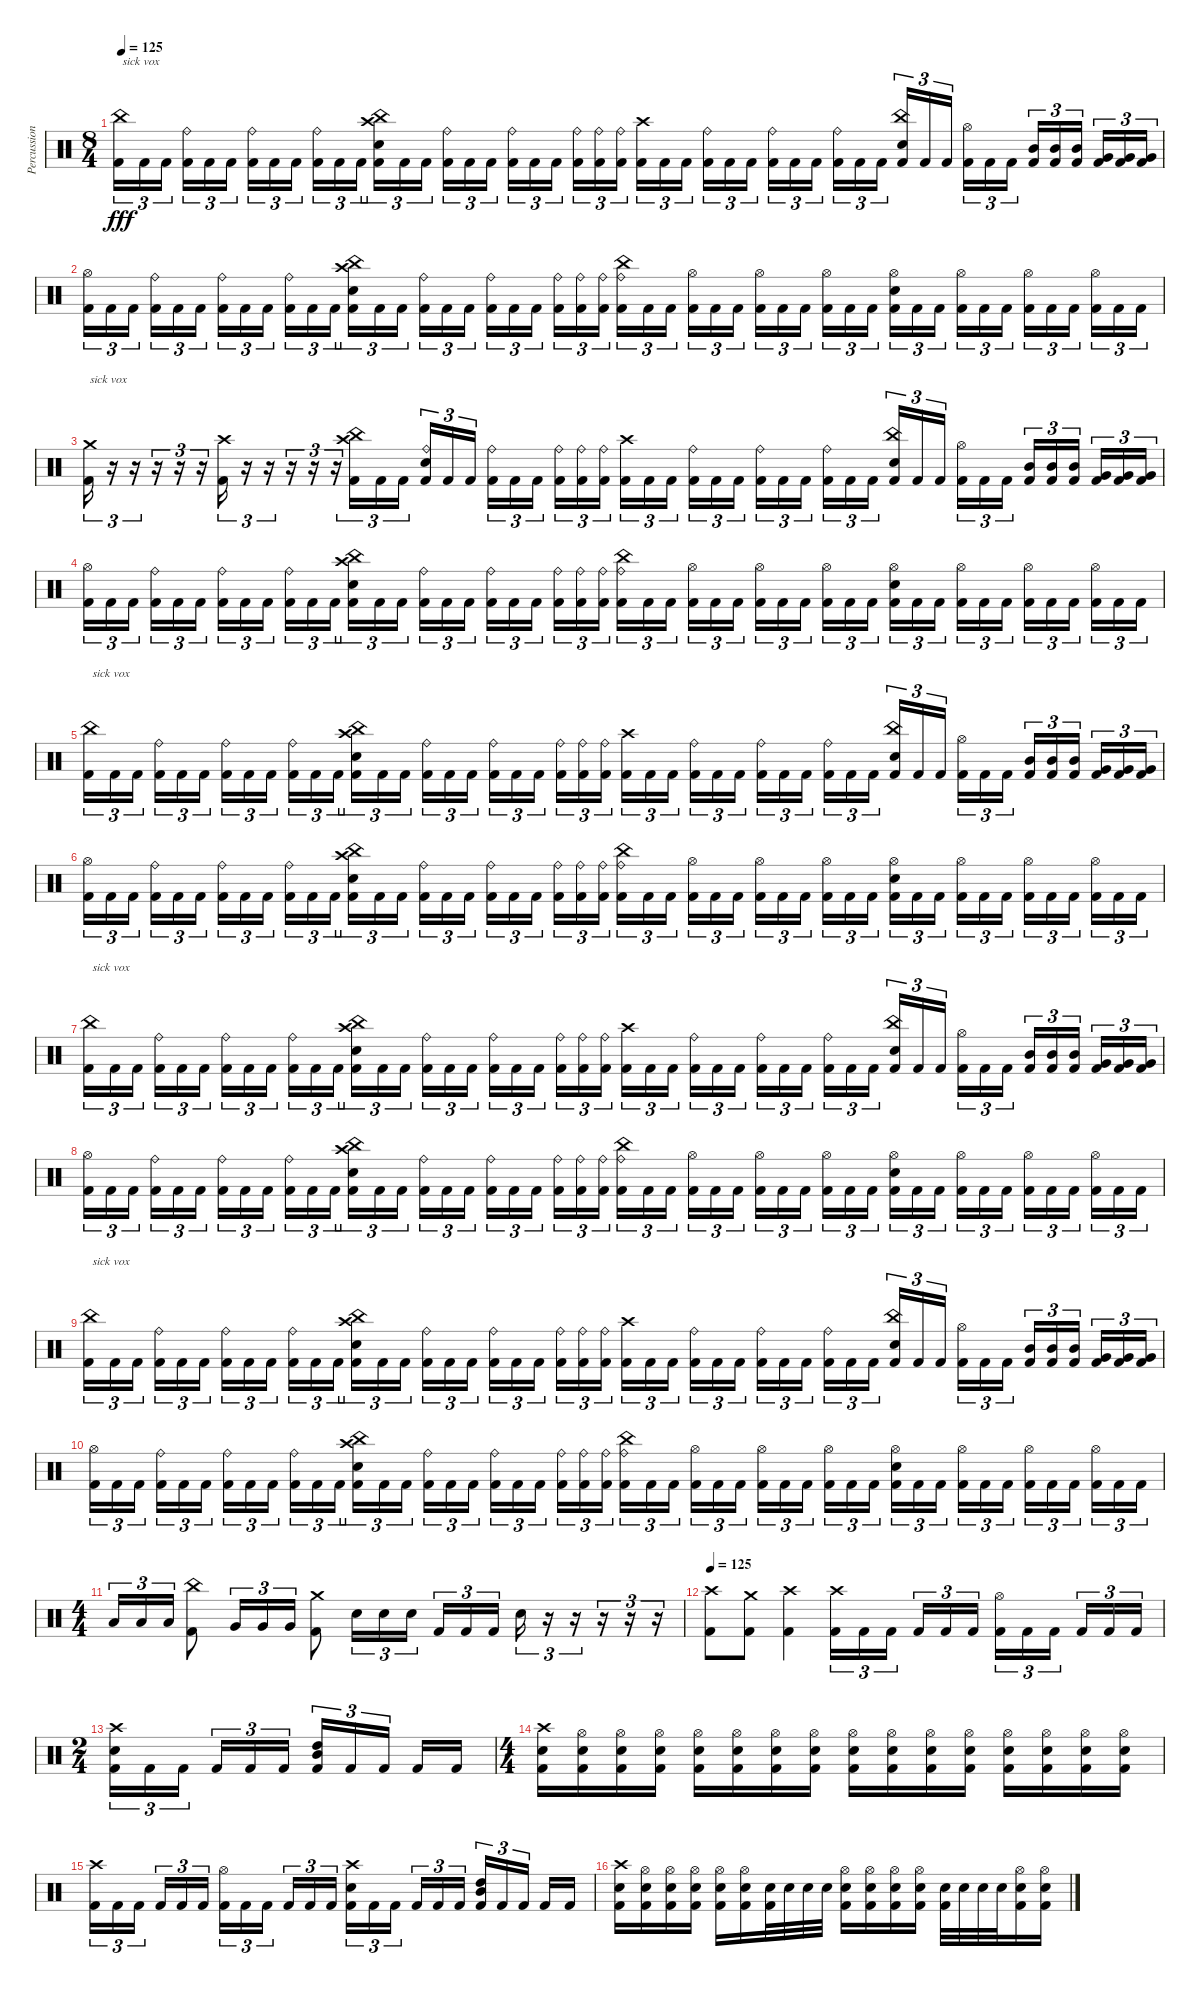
\track ("Percussion" "Percussion") {instrument percussion}
\staff {score}
\articulation defaults
\ts (8 4)
\tempo 125
\clef neutral
\ks c
("Kick (hit) 2" "China (hit)").16{tu (3 2) txt "sick vox" dy fff} "Kick (hit) 2".16{tu (3 2)} "Kick (hit) 2".16{tu (3 2) beam splitsecondary} ("Kick (hit) 2" "Ride (bell)").16{tu (3 2)} "Kick (hit) 2".16{tu (3 2)} "Kick (hit) 2".16{tu (3 2)} ("Kick (hit) 2" "Ride (bell)").16{tu (3 2)} "Kick (hit) 2".16{tu (3 2)} "Kick (hit) 2".16{tu (3 2) beam splitsecondary} ("Kick (hit) 2" "Ride (bell)").16{tu (3 2)} "Kick (hit) 2".16{tu (3 2)} "Kick (hit) 2".16{tu (3 2)} ("Kick (hit) 2" "Electric Snare (hit)" "China (hit)" "Crash high (hit)").16{tu (3 2)} "Kick (hit) 2".16{tu (3 2)} "Kick (hit) 2".16{tu (3 2) beam splitsecondary} ("Kick (hit) 2" "Ride (bell)").16{tu (3 2)} "Kick (hit) 2".16{tu (3 2)} "Kick (hit) 2".16{tu (3 2)} ("Kick (hit) 2" "Ride (bell)").16{tu (3 2)} "Kick (hit) 2".16{tu (3 2)} "Kick (hit) 2".16{tu (3 2) beam splitsecondary} ("Kick (hit) 2" "Ride (bell)").16{tu (3 2)} ("Kick (hit) 2" "Ride (bell)").16{tu (3 2)} ("Kick (hit) 2" "Ride (bell)").16{tu (3 2)} ("Kick (hit) 2" "Crash high (hit)").16{tu (3 2)} "Kick (hit) 2".16{tu (3 2)} "Kick (hit) 2".16{tu (3 2) beam splitsecondary} ("Kick (hit) 2" "Ride (bell)").16{tu (3 2)} "Kick (hit) 2".16{tu (3 2)} "Kick (hit) 2".16{tu (3 2)} ("Kick (hit) 2" "Ride (bell)").16{tu (3 2)} "Kick (hit) 2".16{tu (3 2)} "Kick (hit) 2".16{tu (3 2) beam splitsecondary} ("Kick (hit) 2" "Ride (bell)").16{tu (3 2)} "Kick (hit) 2".16{tu (3 2)} "Kick (hit) 2".16{tu (3 2)} ("Kick (hit) 2" "China (hit)" "Electric Snare (hit)").16{tu (3 2)} "Kick (hit) 2".16{tu (3 2)} "Kick (hit) 2".16{tu (3 2) beam splitsecondary} ("Kick (hit) 2" "Hi-Hat (open)").16{tu (3 2)} "Kick (hit) 2".16{tu (3 2)} "Kick (hit) 2".16{tu (3 2)} ("Kick (hit) 2" "Mid Tom (hit)").16{tu (3 2)} ("Kick (hit) 2" "Mid Tom (hit)").16{tu (3 2)} ("Kick (hit) 2" "Mid Tom (hit)").16{tu (3 2) beam splitsecondary} ("Kick (hit) 2" "Very Low Tom (hit)").16{tu (3 2)} ("Kick (hit) 2" "Very Low Tom (hit)").16{tu (3 2)} ("Kick (hit) 2" "Very Low Tom (hit)").16{tu (3 2)} |
("Kick (hit) 2" "Hi-Hat (open)").16{tu (3 2)} "Kick (hit) 2".16{tu (3 2)} "Kick (hit) 2".16{tu (3 2) beam splitsecondary} ("Kick (hit) 2" "Ride (bell)").16{tu (3 2)} "Kick (hit) 2".16{tu (3 2)} "Kick (hit) 2".16{tu (3 2)} ("Kick (hit) 2" "Ride (bell)").16{tu (3 2)} "Kick (hit) 2".16{tu (3 2)} "Kick (hit) 2".16{tu (3 2) beam splitsecondary} ("Kick (hit) 2" "Ride (bell)").16{tu (3 2)} "Kick (hit) 2".16{tu (3 2)} "Kick (hit) 2".16{tu (3 2)} ("Kick (hit) 2" "Electric Snare (hit)" "China (hit)" "Crash high (hit)").16{tu (3 2)} "Kick (hit) 2".16{tu (3 2)} "Kick (hit) 2".16{tu (3 2) beam splitsecondary} ("Kick (hit) 2" "Ride (bell)").16{tu (3 2)} "Kick (hit) 2".16{tu (3 2)} "Kick (hit) 2".16{tu (3 2)} ("Kick (hit) 2" "Ride (bell)").16{tu (3 2)} "Kick (hit) 2".16{tu (3 2)} "Kick (hit) 2".16{tu (3 2) beam splitsecondary} ("Kick (hit) 2" "Ride (bell)").16{tu (3 2)} ("Kick (hit) 2" "Ride (bell)").16{tu (3 2)} ("Kick (hit) 2" "Ride (bell)").16{tu (3 2)} ("Kick (hit) 2" "Ride (bell)" "China (hit)").16{tu (3 2)} "Kick (hit) 2".16{tu (3 2)} "Kick (hit) 2".16{tu (3 2) beam splitsecondary} ("Kick (hit) 2" "Hi-Hat (open)").16{tu (3 2)} "Kick (hit) 2".16{tu (3 2)} "Kick (hit) 2".16{tu (3 2)} ("Kick (hit) 2" "Hi-Hat (open)").16{tu (3 2)} "Kick (hit) 2".16{tu (3 2)} "Kick (hit) 2".16{tu (3 2) beam splitsecondary} ("Kick (hit) 2" "Hi-Hat (open)").16{tu (3 2)} "Kick (hit) 2".16{tu (3 2)} "Kick (hit) 2".16{tu (3 2)} ("Kick (hit) 2" "Hi-Hat (open)" "Electric Snare (hit)").16{tu (3 2)} "Kick (hit) 2".16{tu (3 2)} "Kick (hit) 2".16{tu (3 2) beam splitsecondary} ("Kick (hit) 2" "Hi-Hat (open)").16{tu (3 2)} "Kick (hit) 2".16{tu (3 2)} "Kick (hit) 2".16{tu (3 2)} ("Kick (hit) 2" "Hi-Hat (open)").16{tu (3 2)} "Kick (hit) 2".16{tu (3 2)} "Kick (hit) 2".16{tu (3 2) beam splitsecondary} ("Kick (hit) 2" "Hi-Hat (open)").16{tu (3 2)} "Kick (hit) 2".16{tu (3 2)} "Kick (hit) 2".16{tu (3 2)} |
("Kick (hit) 2" "Crash medium (hit)").16{tu (3 2) txt "sick vox"} r.16{tu (3 2)} r.16{tu (3 2)} r.16{tu (3 2)} r.16{tu (3 2)} r.16{tu (3 2)} ("Kick (hit) 2" "Crash high (hit)").16{tu (3 2)} r.16{tu (3 2)} r.16{tu (3 2)} r.16{tu (3 2)} r.16{tu (3 2)} r.16{tu (3 2)} ("Kick (hit) 2" "China (hit)" "Crash high (hit)").16{tu (3 2)} "Kick (hit) 2".16{tu (3 2)} "Kick (hit) 2".16{tu (3 2) beam splitsecondary} ("Kick (hit) 2" "Ride (bell)" "Electric Snare (hit)").16{tu (3 2)} "Kick (hit) 2".16{tu (3 2)} "Kick (hit) 2".16{tu (3 2)} ("Kick (hit) 2" "Ride (bell)").16{tu (3 2)} "Kick (hit) 2".16{tu (3 2)} "Kick (hit) 2".16{tu (3 2) beam splitsecondary} ("Kick (hit) 2" "Ride (bell)").16{tu (3 2)} ("Kick (hit) 2" "Ride (bell)").16{tu (3 2)} ("Kick (hit) 2" "Ride (bell)").16{tu (3 2)} ("Kick (hit) 2" "Crash high (hit)").16{tu (3 2)} "Kick (hit) 2".16{tu (3 2)} "Kick (hit) 2".16{tu (3 2) beam splitsecondary} ("Kick (hit) 2" "Ride (bell)").16{tu (3 2)} "Kick (hit) 2".16{tu (3 2)} "Kick (hit) 2".16{tu (3 2)} ("Kick (hit) 2" "Ride (bell)").16{tu (3 2)} "Kick (hit) 2".16{tu (3 2)} "Kick (hit) 2".16{tu (3 2) beam splitsecondary} ("Kick (hit) 2" "Ride (bell)").16{tu (3 2)} "Kick (hit) 2".16{tu (3 2)} "Kick (hit) 2".16{tu (3 2)} ("Kick (hit) 2" "China (hit)" "Electric Snare (hit)").16{tu (3 2)} "Kick (hit) 2".16{tu (3 2)} "Kick (hit) 2".16{tu (3 2) beam splitsecondary} ("Kick (hit) 2" "Hi-Hat (open)").16{tu (3 2)} "Kick (hit) 2".16{tu (3 2)} "Kick (hit) 2".16{tu (3 2)} ("Kick (hit) 2" "Mid Tom (hit)").16{tu (3 2)} ("Kick (hit) 2" "Mid Tom (hit)").16{tu (3 2)} ("Kick (hit) 2" "Mid Tom (hit)").16{tu (3 2) beam splitsecondary} ("Kick (hit) 2" "Very Low Tom (hit)").16{tu (3 2)} ("Kick (hit) 2" "Very Low Tom (hit)").16{tu (3 2)} ("Kick (hit) 2" "Very Low Tom (hit)").16{tu (3 2)} |
("Kick (hit) 2" "Hi-Hat (open)").16{tu (3 2)} "Kick (hit) 2".16{tu (3 2)} "Kick (hit) 2".16{tu (3 2) beam splitsecondary} ("Kick (hit) 2" "Ride (bell)").16{tu (3 2)} "Kick (hit) 2".16{tu (3 2)} "Kick (hit) 2".16{tu (3 2)} ("Kick (hit) 2" "Ride (bell)").16{tu (3 2)} "Kick (hit) 2".16{tu (3 2)} "Kick (hit) 2".16{tu (3 2) beam splitsecondary} ("Kick (hit) 2" "Ride (bell)").16{tu (3 2)} "Kick (hit) 2".16{tu (3 2)} "Kick (hit) 2".16{tu (3 2)} ("Kick (hit) 2" "Electric Snare (hit)" "China (hit)" "Crash high (hit)").16{tu (3 2)} "Kick (hit) 2".16{tu (3 2)} "Kick (hit) 2".16{tu (3 2) beam splitsecondary} ("Kick (hit) 2" "Ride (bell)").16{tu (3 2)} "Kick (hit) 2".16{tu (3 2)} "Kick (hit) 2".16{tu (3 2)} ("Kick (hit) 2" "Ride (bell)").16{tu (3 2)} "Kick (hit) 2".16{tu (3 2)} "Kick (hit) 2".16{tu (3 2) beam splitsecondary} ("Kick (hit) 2" "Ride (bell)").16{tu (3 2)} ("Kick (hit) 2" "Ride (bell)").16{tu (3 2)} ("Kick (hit) 2" "Ride (bell)").16{tu (3 2)} ("Kick (hit) 2" "Ride (bell)" "China (hit)").16{tu (3 2)} "Kick (hit) 2".16{tu (3 2)} "Kick (hit) 2".16{tu (3 2) beam splitsecondary} ("Kick (hit) 2" "Hi-Hat (open)").16{tu (3 2)} "Kick (hit) 2".16{tu (3 2)} "Kick (hit) 2".16{tu (3 2)} ("Kick (hit) 2" "Hi-Hat (open)").16{tu (3 2)} "Kick (hit) 2".16{tu (3 2)} "Kick (hit) 2".16{tu (3 2) beam splitsecondary} ("Kick (hit) 2" "Hi-Hat (open)").16{tu (3 2)} "Kick (hit) 2".16{tu (3 2)} "Kick (hit) 2".16{tu (3 2)} ("Kick (hit) 2" "Hi-Hat (open)" "Electric Snare (hit)").16{tu (3 2)} "Kick (hit) 2".16{tu (3 2)} "Kick (hit) 2".16{tu (3 2) beam splitsecondary} ("Kick (hit) 2" "Hi-Hat (open)").16{tu (3 2)} "Kick (hit) 2".16{tu (3 2)} "Kick (hit) 2".16{tu (3 2)} ("Kick (hit) 2" "Hi-Hat (open)").16{tu (3 2)} "Kick (hit) 2".16{tu (3 2)} "Kick (hit) 2".16{tu (3 2) beam splitsecondary} ("Kick (hit) 2" "Hi-Hat (open)").16{tu (3 2)} "Kick (hit) 2".16{tu (3 2)} "Kick (hit) 2".16{tu (3 2)} |
("Kick (hit) 2" "China (hit)").16{tu (3 2) txt "sick vox"} "Kick (hit) 2".16{tu (3 2)} "Kick (hit) 2".16{tu (3 2) beam splitsecondary} ("Kick (hit) 2" "Ride (bell)").16{tu (3 2)} "Kick (hit) 2".16{tu (3 2)} "Kick (hit) 2".16{tu (3 2)} ("Kick (hit) 2" "Ride (bell)").16{tu (3 2)} "Kick (hit) 2".16{tu (3 2)} "Kick (hit) 2".16{tu (3 2) beam splitsecondary} ("Kick (hit) 2" "Ride (bell)").16{tu (3 2)} "Kick (hit) 2".16{tu (3 2)} "Kick (hit) 2".16{tu (3 2)} ("Kick (hit) 2" "Electric Snare (hit)" "China (hit)" "Crash high (hit)").16{tu (3 2)} "Kick (hit) 2".16{tu (3 2)} "Kick (hit) 2".16{tu (3 2) beam splitsecondary} ("Kick (hit) 2" "Ride (bell)").16{tu (3 2)} "Kick (hit) 2".16{tu (3 2)} "Kick (hit) 2".16{tu (3 2)} ("Kick (hit) 2" "Ride (bell)").16{tu (3 2)} "Kick (hit) 2".16{tu (3 2)} "Kick (hit) 2".16{tu (3 2) beam splitsecondary} ("Kick (hit) 2" "Ride (bell)").16{tu (3 2)} ("Kick (hit) 2" "Ride (bell)").16{tu (3 2)} ("Kick (hit) 2" "Ride (bell)").16{tu (3 2)} ("Kick (hit) 2" "Crash high (hit)").16{tu (3 2)} "Kick (hit) 2".16{tu (3 2)} "Kick (hit) 2".16{tu (3 2) beam splitsecondary} ("Kick (hit) 2" "Ride (bell)").16{tu (3 2)} "Kick (hit) 2".16{tu (3 2)} "Kick (hit) 2".16{tu (3 2)} ("Kick (hit) 2" "Ride (bell)").16{tu (3 2)} "Kick (hit) 2".16{tu (3 2)} "Kick (hit) 2".16{tu (3 2) beam splitsecondary} ("Kick (hit) 2" "Ride (bell)").16{tu (3 2)} "Kick (hit) 2".16{tu (3 2)} "Kick (hit) 2".16{tu (3 2)} ("Kick (hit) 2" "China (hit)" "Electric Snare (hit)").16{tu (3 2)} "Kick (hit) 2".16{tu (3 2)} "Kick (hit) 2".16{tu (3 2) beam splitsecondary} ("Kick (hit) 2" "Hi-Hat (open)").16{tu (3 2)} "Kick (hit) 2".16{tu (3 2)} "Kick (hit) 2".16{tu (3 2)} ("Kick (hit) 2" "Mid Tom (hit)").16{tu (3 2)} ("Kick (hit) 2" "Mid Tom (hit)").16{tu (3 2)} ("Kick (hit) 2" "Mid Tom (hit)").16{tu (3 2) beam splitsecondary} ("Kick (hit) 2" "Very Low Tom (hit)").16{tu (3 2)} ("Kick (hit) 2" "Very Low Tom (hit)").16{tu (3 2)} ("Kick (hit) 2" "Very Low Tom (hit)").16{tu (3 2)} |
("Kick (hit) 2" "Hi-Hat (open)").16{tu (3 2)} "Kick (hit) 2".16{tu (3 2)} "Kick (hit) 2".16{tu (3 2) beam splitsecondary} ("Kick (hit) 2" "Ride (bell)").16{tu (3 2)} "Kick (hit) 2".16{tu (3 2)} "Kick (hit) 2".16{tu (3 2)} ("Kick (hit) 2" "Ride (bell)").16{tu (3 2)} "Kick (hit) 2".16{tu (3 2)} "Kick (hit) 2".16{tu (3 2) beam splitsecondary} ("Kick (hit) 2" "Ride (bell)").16{tu (3 2)} "Kick (hit) 2".16{tu (3 2)} "Kick (hit) 2".16{tu (3 2)} ("Kick (hit) 2" "Electric Snare (hit)" "China (hit)" "Crash high (hit)").16{tu (3 2)} "Kick (hit) 2".16{tu (3 2)} "Kick (hit) 2".16{tu (3 2) beam splitsecondary} ("Kick (hit) 2" "Ride (bell)").16{tu (3 2)} "Kick (hit) 2".16{tu (3 2)} "Kick (hit) 2".16{tu (3 2)} ("Kick (hit) 2" "Ride (bell)").16{tu (3 2)} "Kick (hit) 2".16{tu (3 2)} "Kick (hit) 2".16{tu (3 2) beam splitsecondary} ("Kick (hit) 2" "Ride (bell)").16{tu (3 2)} ("Kick (hit) 2" "Ride (bell)").16{tu (3 2)} ("Kick (hit) 2" "Ride (bell)").16{tu (3 2)} ("Kick (hit) 2" "Ride (bell)" "China (hit)").16{tu (3 2)} "Kick (hit) 2".16{tu (3 2)} "Kick (hit) 2".16{tu (3 2) beam splitsecondary} ("Kick (hit) 2" "Hi-Hat (open)").16{tu (3 2)} "Kick (hit) 2".16{tu (3 2)} "Kick (hit) 2".16{tu (3 2)} ("Kick (hit) 2" "Hi-Hat (open)").16{tu (3 2)} "Kick (hit) 2".16{tu (3 2)} "Kick (hit) 2".16{tu (3 2) beam splitsecondary} ("Kick (hit) 2" "Hi-Hat (open)").16{tu (3 2)} "Kick (hit) 2".16{tu (3 2)} "Kick (hit) 2".16{tu (3 2)} ("Kick (hit) 2" "Hi-Hat (open)" "Electric Snare (hit)").16{tu (3 2)} "Kick (hit) 2".16{tu (3 2)} "Kick (hit) 2".16{tu (3 2) beam splitsecondary} ("Kick (hit) 2" "Hi-Hat (open)").16{tu (3 2)} "Kick (hit) 2".16{tu (3 2)} "Kick (hit) 2".16{tu (3 2)} ("Kick (hit) 2" "Hi-Hat (open)").16{tu (3 2)} "Kick (hit) 2".16{tu (3 2)} "Kick (hit) 2".16{tu (3 2) beam splitsecondary} ("Kick (hit) 2" "Hi-Hat (open)").16{tu (3 2)} "Kick (hit) 2".16{tu (3 2)} "Kick (hit) 2".16{tu (3 2)} |
("Kick (hit) 2" "China (hit)").16{tu (3 2) txt "sick vox"} "Kick (hit) 2".16{tu (3 2)} "Kick (hit) 2".16{tu (3 2) beam splitsecondary} ("Kick (hit) 2" "Ride (bell)").16{tu (3 2)} "Kick (hit) 2".16{tu (3 2)} "Kick (hit) 2".16{tu (3 2)} ("Kick (hit) 2" "Ride (bell)").16{tu (3 2)} "Kick (hit) 2".16{tu (3 2)} "Kick (hit) 2".16{tu (3 2) beam splitsecondary} ("Kick (hit) 2" "Ride (bell)").16{tu (3 2)} "Kick (hit) 2".16{tu (3 2)} "Kick (hit) 2".16{tu (3 2)} ("Kick (hit) 2" "Electric Snare (hit)" "China (hit)" "Crash high (hit)").16{tu (3 2)} "Kick (hit) 2".16{tu (3 2)} "Kick (hit) 2".16{tu (3 2) beam splitsecondary} ("Kick (hit) 2" "Ride (bell)").16{tu (3 2)} "Kick (hit) 2".16{tu (3 2)} "Kick (hit) 2".16{tu (3 2)} ("Kick (hit) 2" "Ride (bell)").16{tu (3 2)} "Kick (hit) 2".16{tu (3 2)} "Kick (hit) 2".16{tu (3 2) beam splitsecondary} ("Kick (hit) 2" "Ride (bell)").16{tu (3 2)} ("Kick (hit) 2" "Ride (bell)").16{tu (3 2)} ("Kick (hit) 2" "Ride (bell)").16{tu (3 2)} ("Kick (hit) 2" "Crash high (hit)").16{tu (3 2)} "Kick (hit) 2".16{tu (3 2)} "Kick (hit) 2".16{tu (3 2) beam splitsecondary} ("Kick (hit) 2" "Ride (bell)").16{tu (3 2)} "Kick (hit) 2".16{tu (3 2)} "Kick (hit) 2".16{tu (3 2)} ("Kick (hit) 2" "Ride (bell)").16{tu (3 2)} "Kick (hit) 2".16{tu (3 2)} "Kick (hit) 2".16{tu (3 2) beam splitsecondary} ("Kick (hit) 2" "Ride (bell)").16{tu (3 2)} "Kick (hit) 2".16{tu (3 2)} "Kick (hit) 2".16{tu (3 2)} ("Kick (hit) 2" "China (hit)" "Electric Snare (hit)").16{tu (3 2)} "Kick (hit) 2".16{tu (3 2)} "Kick (hit) 2".16{tu (3 2) beam splitsecondary} ("Kick (hit) 2" "Hi-Hat (open)").16{tu (3 2)} "Kick (hit) 2".16{tu (3 2)} "Kick (hit) 2".16{tu (3 2)} ("Kick (hit) 2" "Mid Tom (hit)").16{tu (3 2)} ("Kick (hit) 2" "Mid Tom (hit)").16{tu (3 2)} ("Kick (hit) 2" "Mid Tom (hit)").16{tu (3 2) beam splitsecondary} ("Kick (hit) 2" "Very Low Tom (hit)").16{tu (3 2)} ("Kick (hit) 2" "Very Low Tom (hit)").16{tu (3 2)} ("Kick (hit) 2" "Very Low Tom (hit)").16{tu (3 2)} |
("Kick (hit) 2" "Hi-Hat (open)").16{tu (3 2)} "Kick (hit) 2".16{tu (3 2)} "Kick (hit) 2".16{tu (3 2) beam splitsecondary} ("Kick (hit) 2" "Ride (bell)").16{tu (3 2)} "Kick (hit) 2".16{tu (3 2)} "Kick (hit) 2".16{tu (3 2)} ("Kick (hit) 2" "Ride (bell)").16{tu (3 2)} "Kick (hit) 2".16{tu (3 2)} "Kick (hit) 2".16{tu (3 2) beam splitsecondary} ("Kick (hit) 2" "Ride (bell)").16{tu (3 2)} "Kick (hit) 2".16{tu (3 2)} "Kick (hit) 2".16{tu (3 2)} ("Kick (hit) 2" "Electric Snare (hit)" "China (hit)" "Crash high (hit)").16{tu (3 2)} "Kick (hit) 2".16{tu (3 2)} "Kick (hit) 2".16{tu (3 2) beam splitsecondary} ("Kick (hit) 2" "Ride (bell)").16{tu (3 2)} "Kick (hit) 2".16{tu (3 2)} "Kick (hit) 2".16{tu (3 2)} ("Kick (hit) 2" "Ride (bell)").16{tu (3 2)} "Kick (hit) 2".16{tu (3 2)} "Kick (hit) 2".16{tu (3 2) beam splitsecondary} ("Kick (hit) 2" "Ride (bell)").16{tu (3 2)} ("Kick (hit) 2" "Ride (bell)").16{tu (3 2)} ("Kick (hit) 2" "Ride (bell)").16{tu (3 2)} ("Kick (hit) 2" "Ride (bell)" "China (hit)").16{tu (3 2)} "Kick (hit) 2".16{tu (3 2)} "Kick (hit) 2".16{tu (3 2) beam splitsecondary} ("Kick (hit) 2" "Hi-Hat (open)").16{tu (3 2)} "Kick (hit) 2".16{tu (3 2)} "Kick (hit) 2".16{tu (3 2)} ("Kick (hit) 2" "Hi-Hat (open)").16{tu (3 2)} "Kick (hit) 2".16{tu (3 2)} "Kick (hit) 2".16{tu (3 2) beam splitsecondary} ("Kick (hit) 2" "Hi-Hat (open)").16{tu (3 2)} "Kick (hit) 2".16{tu (3 2)} "Kick (hit) 2".16{tu (3 2)} ("Kick (hit) 2" "Hi-Hat (open)" "Electric Snare (hit)").16{tu (3 2)} "Kick (hit) 2".16{tu (3 2)} "Kick (hit) 2".16{tu (3 2) beam splitsecondary} ("Kick (hit) 2" "Hi-Hat (open)").16{tu (3 2)} "Kick (hit) 2".16{tu (3 2)} "Kick (hit) 2".16{tu (3 2)} ("Kick (hit) 2" "Hi-Hat (open)").16{tu (3 2)} "Kick (hit) 2".16{tu (3 2)} "Kick (hit) 2".16{tu (3 2) beam splitsecondary} ("Kick (hit) 2" "Hi-Hat (open)").16{tu (3 2)} "Kick (hit) 2".16{tu (3 2)} "Kick (hit) 2".16{tu (3 2)} |
("Kick (hit) 2" "China (hit)").16{tu (3 2) txt "sick vox"} "Kick (hit) 2".16{tu (3 2)} "Kick (hit) 2".16{tu (3 2) beam splitsecondary} ("Kick (hit) 2" "Ride (bell)").16{tu (3 2)} "Kick (hit) 2".16{tu (3 2)} "Kick (hit) 2".16{tu (3 2)} ("Kick (hit) 2" "Ride (bell)").16{tu (3 2)} "Kick (hit) 2".16{tu (3 2)} "Kick (hit) 2".16{tu (3 2) beam splitsecondary} ("Kick (hit) 2" "Ride (bell)").16{tu (3 2)} "Kick (hit) 2".16{tu (3 2)} "Kick (hit) 2".16{tu (3 2)} ("Kick (hit) 2" "Electric Snare (hit)" "China (hit)" "Crash high (hit)").16{tu (3 2)} "Kick (hit) 2".16{tu (3 2)} "Kick (hit) 2".16{tu (3 2) beam splitsecondary} ("Kick (hit) 2" "Ride (bell)").16{tu (3 2)} "Kick (hit) 2".16{tu (3 2)} "Kick (hit) 2".16{tu (3 2)} ("Kick (hit) 2" "Ride (bell)").16{tu (3 2)} "Kick (hit) 2".16{tu (3 2)} "Kick (hit) 2".16{tu (3 2) beam splitsecondary} ("Kick (hit) 2" "Ride (bell)").16{tu (3 2)} ("Kick (hit) 2" "Ride (bell)").16{tu (3 2)} ("Kick (hit) 2" "Ride (bell)").16{tu (3 2)} ("Kick (hit) 2" "Crash high (hit)").16{tu (3 2)} "Kick (hit) 2".16{tu (3 2)} "Kick (hit) 2".16{tu (3 2) beam splitsecondary} ("Kick (hit) 2" "Ride (bell)").16{tu (3 2)} "Kick (hit) 2".16{tu (3 2)} "Kick (hit) 2".16{tu (3 2)} ("Kick (hit) 2" "Ride (bell)").16{tu (3 2)} "Kick (hit) 2".16{tu (3 2)} "Kick (hit) 2".16{tu (3 2) beam splitsecondary} ("Kick (hit) 2" "Ride (bell)").16{tu (3 2)} "Kick (hit) 2".16{tu (3 2)} "Kick (hit) 2".16{tu (3 2)} ("Kick (hit) 2" "China (hit)" "Electric Snare (hit)").16{tu (3 2)} "Kick (hit) 2".16{tu (3 2)} "Kick (hit) 2".16{tu (3 2) beam splitsecondary} ("Kick (hit) 2" "Hi-Hat (open)").16{tu (3 2)} "Kick (hit) 2".16{tu (3 2)} "Kick (hit) 2".16{tu (3 2)} ("Kick (hit) 2" "Mid Tom (hit)").16{tu (3 2)} ("Kick (hit) 2" "Mid Tom (hit)").16{tu (3 2)} ("Kick (hit) 2" "Mid Tom (hit)").16{tu (3 2) beam splitsecondary} ("Kick (hit) 2" "Very Low Tom (hit)").16{tu (3 2)} ("Kick (hit) 2" "Very Low Tom (hit)").16{tu (3 2)} ("Kick (hit) 2" "Very Low Tom (hit)").16{tu (3 2)} |
("Kick (hit) 2" "Hi-Hat (open)").16{tu (3 2)} "Kick (hit) 2".16{tu (3 2)} "Kick (hit) 2".16{tu (3 2) beam splitsecondary} ("Kick (hit) 2" "Ride (bell)").16{tu (3 2)} "Kick (hit) 2".16{tu (3 2)} "Kick (hit) 2".16{tu (3 2)} ("Kick (hit) 2" "Ride (bell)").16{tu (3 2)} "Kick (hit) 2".16{tu (3 2)} "Kick (hit) 2".16{tu (3 2) beam splitsecondary} ("Kick (hit) 2" "Ride (bell)").16{tu (3 2)} "Kick (hit) 2".16{tu (3 2)} "Kick (hit) 2".16{tu (3 2)} ("Kick (hit) 2" "Electric Snare (hit)" "China (hit)" "Crash high (hit)").16{tu (3 2)} "Kick (hit) 2".16{tu (3 2)} "Kick (hit) 2".16{tu (3 2) beam splitsecondary} ("Kick (hit) 2" "Ride (bell)").16{tu (3 2)} "Kick (hit) 2".16{tu (3 2)} "Kick (hit) 2".16{tu (3 2)} ("Kick (hit) 2" "Ride (bell)").16{tu (3 2)} "Kick (hit) 2".16{tu (3 2)} "Kick (hit) 2".16{tu (3 2) beam splitsecondary} ("Kick (hit) 2" "Ride (bell)").16{tu (3 2)} ("Kick (hit) 2" "Ride (bell)").16{tu (3 2)} ("Kick (hit) 2" "Ride (bell)").16{tu (3 2)} ("Kick (hit) 2" "Ride (bell)" "China (hit)").16{tu (3 2)} "Kick (hit) 2".16{tu (3 2)} "Kick (hit) 2".16{tu (3 2) beam splitsecondary} ("Kick (hit) 2" "Hi-Hat (open)").16{tu (3 2)} "Kick (hit) 2".16{tu (3 2)} "Kick (hit) 2".16{tu (3 2)} ("Kick (hit) 2" "Hi-Hat (open)").16{tu (3 2)} "Kick (hit) 2".16{tu (3 2)} "Kick (hit) 2".16{tu (3 2) beam splitsecondary} ("Kick (hit) 2" "Hi-Hat (open)").16{tu (3 2)} "Kick (hit) 2".16{tu (3 2)} "Kick (hit) 2".16{tu (3 2)} ("Kick (hit) 2" "Hi-Hat (open)" "Electric Snare (hit)").16{tu (3 2)} "Kick (hit) 2".16{tu (3 2)} "Kick (hit) 2".16{tu (3 2) beam splitsecondary} ("Kick (hit) 2" "Hi-Hat (open)").16{tu (3 2)} "Kick (hit) 2".16{tu (3 2)} "Kick (hit) 2".16{tu (3 2)} ("Kick (hit) 2" "Hi-Hat (open)").16{tu (3 2)} "Kick (hit) 2".16{tu (3 2)} "Kick (hit) 2".16{tu (3 2) beam splitsecondary} ("Kick (hit) 2" "Hi-Hat (open)").16{tu (3 2)} "Kick (hit) 2".16{tu (3 2)} "Kick (hit) 2".16{tu (3 2)} |
\ts (4 4)
"Low Tom (hit)".16{tu (3 2)} "Low Tom (hit)".16{tu (3 2)} "Low Tom (hit)".16{tu (3 2)} ("China (hit)" "Kick (hit) 2").8 "Very Low Tom (hit)".16{tu (3 2)} "Very Low Tom (hit)".16{tu (3 2)} "Very Low Tom (hit)".16{tu (3 2)} ("Kick (hit) 2" "Crash medium (hit)").8 "Electric Snare (hit)".16{tu (3 2)} "Electric Snare (hit)".16{tu (3 2)} "Electric Snare (hit)".16{tu (3 2) beam splitsecondary} "Kick (hit) 2".16{tu (3 2)} "Kick (hit) 2".16{tu (3 2)} "Kick (hit) 2".16{tu (3 2)} "Electric Snare (hit)".16{tu (3 2)} r.16{tu (3 2)} r.16{tu (3 2)} r.16{tu (3 2)} r.16{tu (3 2)} r.16{tu (3 2)} |
\tempo 125
("Crash high (hit)" "Kick (hit) 2").8 ("Crash medium (hit)" "Kick (hit) 2").8 ("Crash high (hit)" "Kick (hit) 2").4 ("Crash high (hit)" "Kick (hit) 2").16{tu (3 2)} "Kick (hit) 2".16{tu (3 2)} "Kick (hit) 2".16{tu (3 2) beam splitsecondary} "Kick (hit) 2".16{tu (3 2)} "Kick (hit) 2".16{tu (3 2)} "Kick (hit) 2".16{tu (3 2)} ("Hi-Hat (open)" "Kick (hit) 2").16{tu (3 2)} "Kick (hit) 2".16{tu (3 2)} "Kick (hit) 2".16{tu (3 2) beam splitsecondary} "Kick (hit) 2".16{tu (3 2)} "Kick (hit) 2".16{tu (3 2)} "Kick (hit) 2".16{tu (3 2)} |
\ts (2 4)
("Electric Snare (hit)" "Crash high (hit)" "Kick (hit) 2").16{tu (3 2)} "Kick (hit) 2".16{tu (3 2)} "Kick (hit) 2".16{tu (3 2) beam splitsecondary} "Kick (hit) 2".16{tu (3 2)} "Kick (hit) 2".16{tu (3 2)} "Kick (hit) 2".16{tu (3 2)} ("Mid Tom (hit)" "High Tom (hit)" "Kick (hit) 2").16{tu (3 2)} "Kick (hit) 2".16{tu (3 2)} "Kick (hit) 2".16{tu (3 2) beam splitsecondary} "Kick (hit) 2".16 "Kick (hit) 2".16 |
\ts (4 4)
("Electric Snare (hit)" "Crash high (hit)" "Kick (hit) 2").16 ("Electric Snare (hit)" "Hi-Hat (open)" "Kick (hit) 2").16 ("Electric Snare (hit)" "Hi-Hat (open)" "Kick (hit) 2").16 ("Electric Snare (hit)" "Hi-Hat (open)" "Kick (hit) 2").16 ("Electric Snare (hit)" "Hi-Hat (open)" "Kick (hit) 2").16 ("Electric Snare (hit)" "Hi-Hat (open)" "Kick (hit) 2").16 ("Electric Snare (hit)" "Hi-Hat (open)" "Kick (hit) 2").16 ("Electric Snare (hit)" "Hi-Hat (open)" "Kick (hit) 2").16 ("Electric Snare (hit)" "Hi-Hat (open)" "Kick (hit) 2").16 ("Electric Snare (hit)" "Hi-Hat (open)" "Kick (hit) 2").16 ("Electric Snare (hit)" "Hi-Hat (open)" "Kick (hit) 2").16 ("Electric Snare (hit)" "Hi-Hat (open)" "Kick (hit) 2").16 ("Electric Snare (hit)" "Hi-Hat (open)" "Kick (hit) 2").16 ("Electric Snare (hit)" "Hi-Hat (open)" "Kick (hit) 2").16 ("Electric Snare (hit)" "Hi-Hat (open)" "Kick (hit) 2").16 ("Electric Snare (hit)" "Hi-Hat (open)" "Kick (hit) 2").16 |
("Crash high (hit)" "Kick (hit) 2").16{tu (3 2)} "Kick (hit) 2".16{tu (3 2)} "Kick (hit) 2".16{tu (3 2) beam splitsecondary} "Kick (hit) 2".16{tu (3 2)} "Kick (hit) 2".16{tu (3 2)} "Kick (hit) 2".16{tu (3 2)} ("Hi-Hat (open)" "Kick (hit) 2").16{tu (3 2)} "Kick (hit) 2".16{tu (3 2)} "Kick (hit) 2".16{tu (3 2) beam splitsecondary} "Kick (hit) 2".16{tu (3 2)} "Kick (hit) 2".16{tu (3 2)} "Kick (hit) 2".16{tu (3 2)} ("Electric Snare (hit)" "Crash high (hit)" "Kick (hit) 2").16{tu (3 2)} "Kick (hit) 2".16{tu (3 2)} "Kick (hit) 2".16{tu (3 2) beam splitsecondary} "Kick (hit) 2".16{tu (3 2)} "Kick (hit) 2".16{tu (3 2)} "Kick (hit) 2".16{tu (3 2)} ("Mid Tom (hit)" "High Tom (hit)" "Kick (hit) 2").16{tu (3 2)} "Kick (hit) 2".16{tu (3 2)} "Kick (hit) 2".16{tu (3 2) beam splitsecondary} "Kick (hit) 2".16 "Kick (hit) 2".16 |
("Electric Snare (hit)" "Crash high (hit)" "Kick (hit) 2").16 ("Electric Snare (hit)" "Hi-Hat (open)" "Kick (hit) 2").16 ("Electric Snare (hit)" "Hi-Hat (open)" "Kick (hit) 2").16 ("Electric Snare (hit)" "Hi-Hat (open)" "Kick (hit) 2").16 ("Electric Snare (hit)" "Hi-Hat (open)" "Kick (hit) 2").16 ("Electric Snare (hit)" "Hi-Hat (open)" "Kick (hit) 2").16 ("Electric Snare (hit)" "Kick (hit) 2").32 "Electric Snare (hit)".32 "Electric Snare (hit)".32 "Electric Snare (hit)".32 ("Electric Snare (hit)" "Hi-Hat (open)" "Kick (hit) 2").16 ("Electric Snare (hit)" "Hi-Hat (open)" "Kick (hit) 2").16 ("Electric Snare (hit)" "Hi-Hat (open)" "Kick (hit) 2").16 ("Electric Snare (hit)" "Hi-Hat (open)" "Kick (hit) 2").16 ("Electric Snare (hit)" "Kick (hit) 2").32 "Electric Snare (hit)".32 "Electric Snare (hit)".32 "Electric Snare (hit)".32 ("Electric Snare (hit)" "Hi-Hat (open)" "Kick (hit) 2").16 ("Electric Snare (hit)" "Hi-Hat (open)" "Kick (hit) 2").16
